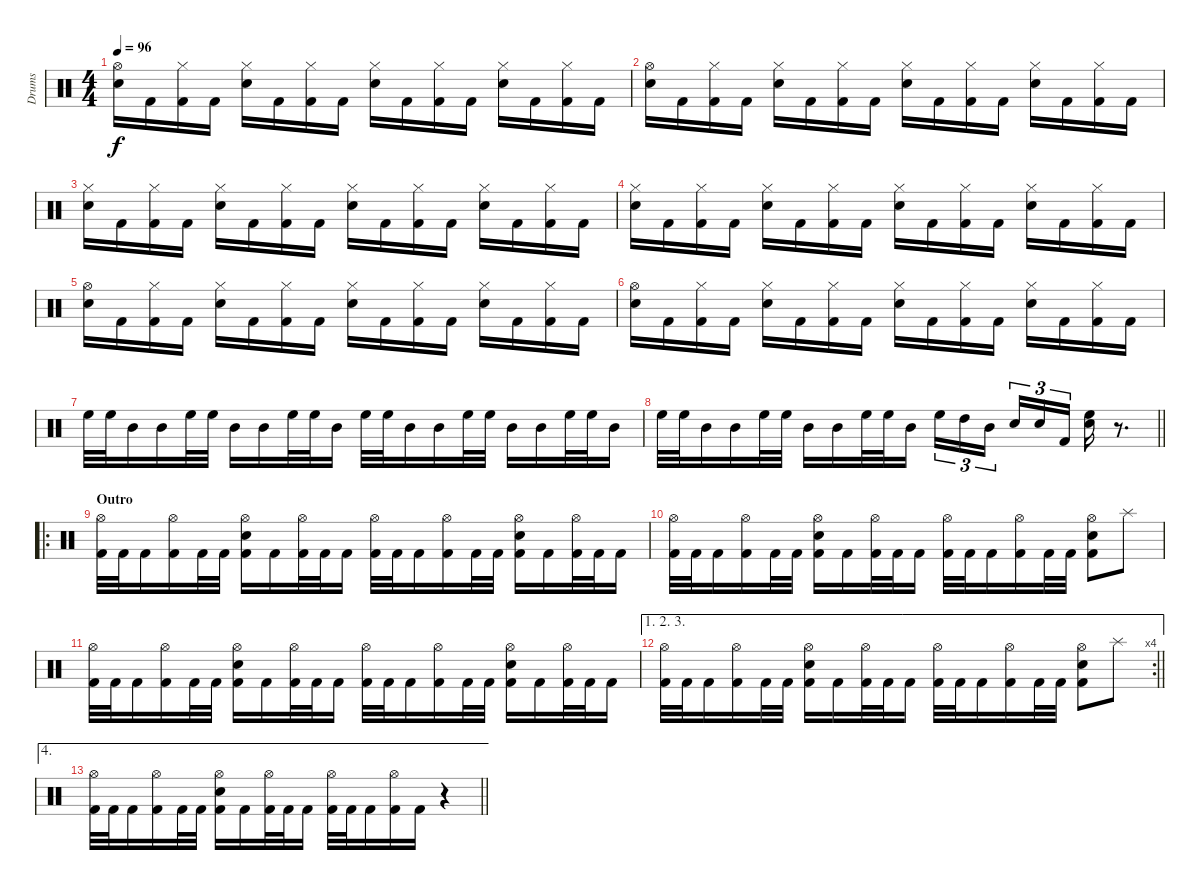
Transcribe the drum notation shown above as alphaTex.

\track ("Drums" "Drums") {instrument percussion}
\staff {score}
\articulation defaults
\ts (4 4)
\tempo 96
\clef neutral
\ks c
("Hi-Hat (open)" "Snare (hit) 2").16{dy f} "Kick (hit) 2".16 ("Hi-Hat (closed)" "Kick (hit) 2").16 "Kick (hit) 2".16 ("Hi-Hat (closed)" "Snare (hit) 2").16 "Kick (hit) 2".16 ("Hi-Hat (closed)" "Kick (hit) 2").16 "Kick (hit) 2".16 ("Hi-Hat (closed)" "Snare (hit) 2").16 "Kick (hit) 2".16 ("Hi-Hat (closed)" "Kick (hit) 2").16 "Kick (hit) 2".16 ("Hi-Hat (closed)" "Snare (hit) 2").16 "Kick (hit) 2".16 ("Hi-Hat (closed)" "Kick (hit) 2").16 "Kick (hit) 2".16 |
("Hi-Hat (open)" "Snare (hit) 2").16 "Kick (hit) 2".16 ("Hi-Hat (closed)" "Kick (hit) 2").16 "Kick (hit) 2".16 ("Hi-Hat (closed)" "Snare (hit) 2").16 "Kick (hit) 2".16 ("Hi-Hat (closed)" "Kick (hit) 2").16 "Kick (hit) 2".16 ("Hi-Hat (closed)" "Snare (hit) 2").16 "Kick (hit) 2".16 ("Hi-Hat (closed)" "Kick (hit) 2").16 "Kick (hit) 2".16 ("Hi-Hat (closed)" "Snare (hit) 2").16 "Kick (hit) 2".16 ("Hi-Hat (closed)" "Kick (hit) 2").16 "Kick (hit) 2".16 |
("Hi-Hat (closed)" "Snare (hit) 2").16 "Kick (hit) 2".16 ("Hi-Hat (closed)" "Kick (hit) 2").16 "Kick (hit) 2".16 ("Hi-Hat (closed)" "Snare (hit) 2").16 "Kick (hit) 2".16 ("Hi-Hat (closed)" "Kick (hit) 2").16 "Kick (hit) 2".16 ("Hi-Hat (closed)" "Snare (hit) 2").16 "Kick (hit) 2".16 ("Hi-Hat (closed)" "Kick (hit) 2").16 "Kick (hit) 2".16 ("Hi-Hat (closed)" "Snare (hit) 2").16 "Kick (hit) 2".16 ("Hi-Hat (closed)" "Kick (hit) 2").16 "Kick (hit) 2".16 |
("Hi-Hat (closed)" "Snare (hit) 2").16 "Kick (hit) 2".16 ("Hi-Hat (closed)" "Kick (hit) 2").16 "Kick (hit) 2".16 ("Hi-Hat (closed)" "Snare (hit) 2").16 "Kick (hit) 2".16 ("Hi-Hat (closed)" "Kick (hit) 2").16 "Kick (hit) 2".16 ("Hi-Hat (closed)" "Snare (hit) 2").16 "Kick (hit) 2".16 ("Hi-Hat (closed)" "Kick (hit) 2").16 "Kick (hit) 2".16 ("Hi-Hat (closed)" "Snare (hit) 2").16 "Kick (hit) 2".16 ("Hi-Hat (closed)" "Kick (hit) 2").16 "Kick (hit) 2".16 |
("Hi-Hat (open)" "Snare (hit) 2").16 "Kick (hit) 2".16 ("Hi-Hat (closed)" "Kick (hit) 2").16 "Kick (hit) 2".16 ("Hi-Hat (closed)" "Snare (hit) 2").16 "Kick (hit) 2".16 ("Hi-Hat (closed)" "Kick (hit) 2").16 "Kick (hit) 2".16 ("Hi-Hat (closed)" "Snare (hit) 2").16 "Kick (hit) 2".16 ("Hi-Hat (closed)" "Kick (hit) 2").16 "Kick (hit) 2".16 ("Hi-Hat (closed)" "Snare (hit) 2").16 "Kick (hit) 2".16 ("Hi-Hat (closed)" "Kick (hit) 2").16 "Kick (hit) 2".16 |
("Hi-Hat (open)" "Snare (hit) 2").16 "Kick (hit) 2".16 ("Hi-Hat (closed)" "Kick (hit) 2").16 "Kick (hit) 2".16 ("Hi-Hat (closed)" "Snare (hit) 2").16 "Kick (hit) 2".16 ("Hi-Hat (closed)" "Kick (hit) 2").16 "Kick (hit) 2".16 ("Hi-Hat (closed)" "Snare (hit) 2").16 "Kick (hit) 2".16 ("Hi-Hat (closed)" "Kick (hit) 2").16 "Kick (hit) 2".16 ("Hi-Hat (closed)" "Snare (hit) 2").16 "Kick (hit) 2".16 ("Hi-Hat (closed)" "Kick (hit) 2").16 "Kick (hit) 2".16 |
"High Floor Tom (hit)".32 "High Floor Tom (hit)".32 "Mid Tom (hit)".16 "Mid Tom (hit)".16 "High Floor Tom (hit)".32 "High Floor Tom (hit)".32 "Mid Tom (hit)".16 "Mid Tom (hit)".16 "High Floor Tom (hit)".32 "High Floor Tom (hit)".32 "Mid Tom (hit)".16 "High Floor Tom (hit)".32 "High Floor Tom (hit)".32 "Mid Tom (hit)".16 "Mid Tom (hit)".16 "High Floor Tom (hit)".32 "High Floor Tom (hit)".32 "Mid Tom (hit)".16 "Mid Tom (hit)".16 "High Floor Tom (hit)".32 "High Floor Tom (hit)".32 "Mid Tom (hit)".16 |
\barLineRight lightlight "High Floor Tom (hit)".32 "High Floor Tom (hit)".32 "Mid Tom (hit)".16 "Mid Tom (hit)".16 "High Floor Tom (hit)".32 "High Floor Tom (hit)".32 "Mid Tom (hit)".16 "Mid Tom (hit)".16 "High Floor Tom (hit)".32 "High Floor Tom (hit)".32 "Mid Tom (hit)".16 "High Floor Tom (hit)".16{tu (3 2)} "High Tom (hit)".16{tu (3 2)} "Mid Tom (hit)".16{tu (3 2)} "Electric Snare (hit)".16{tu (3 2)} "Snare (hit) 2".16{tu (3 2)} "Kick (hit) 2".16{tu (3 2)}
("High Floor Tom (hit)" "Snare (hit) 2").16 r.8{d} |
\ro
\section ("" "Outro")
("Hi-Hat (open)" "Kick (hit) 2").32 "Kick (hit) 2".32 "Kick (hit) 2".16 ("Hi-Hat (open)" "Kick (hit) 2").16 "Kick (hit) 2".32 "Kick (hit) 2".32 ("Hi-Hat (open)" "Snare (hit) 2" "Kick (hit) 2").16 "Kick (hit) 2".16 ("Hi-Hat (open)" "Kick (hit) 2").32 "Kick (hit) 2".32 "Kick (hit) 2".16 ("Hi-Hat (open)" "Kick (hit) 2").32 "Kick (hit) 2".32 "Kick (hit) 2".16 ("Hi-Hat (open)" "Kick (hit) 2").16 "Kick (hit) 2".32 "Kick (hit) 2".32 ("Hi-Hat (open)" "Snare (hit) 2" "Kick (hit) 2").16 "Kick (hit) 2".16 ("Hi-Hat (open)" "Kick (hit) 2").32 "Kick (hit) 2".32 "Kick (hit) 2".16 |
("Hi-Hat (open)" "Kick (hit) 2").32 "Kick (hit) 2".32 "Kick (hit) 2".16 ("Hi-Hat (open)" "Kick (hit) 2").16 "Kick (hit) 2".32 "Kick (hit) 2".32 ("Hi-Hat (open)" "Snare (hit) 2" "Kick (hit) 2").16 "Kick (hit) 2".16 ("Hi-Hat (open)" "Kick (hit) 2").32 "Kick (hit) 2".32 "Kick (hit) 2".16 ("Hi-Hat (open)" "Kick (hit) 2").32 "Kick (hit) 2".32 "Kick (hit) 2".16 ("Hi-Hat (open)" "Kick (hit) 2").16 "Kick (hit) 2".32 "Kick (hit) 2".32 ("Hi-Hat (open)" "Snare (hit) 2" "Kick (hit) 2").8 "Splash (hit)".8 |
("Hi-Hat (open)" "Kick (hit) 2").32 "Kick (hit) 2".32 "Kick (hit) 2".16 ("Hi-Hat (open)" "Kick (hit) 2").16 "Kick (hit) 2".32 "Kick (hit) 2".32 ("Hi-Hat (open)" "Snare (hit) 2" "Kick (hit) 2").16 "Kick (hit) 2".16 ("Hi-Hat (open)" "Kick (hit) 2").32 "Kick (hit) 2".32 "Kick (hit) 2".16 ("Hi-Hat (open)" "Kick (hit) 2").32 "Kick (hit) 2".32 "Kick (hit) 2".16 ("Hi-Hat (open)" "Kick (hit) 2").16 "Kick (hit) 2".32 "Kick (hit) 2".32 ("Hi-Hat (open)" "Snare (hit) 2" "Kick (hit) 2").16 "Kick (hit) 2".16 ("Hi-Hat (open)" "Kick (hit) 2").32 "Kick (hit) 2".32 "Kick (hit) 2".16 |
\ae (1 2 3)
\rc 4
\barLineRight lightlight
("Hi-Hat (open)" "Kick (hit) 2").32 "Kick (hit) 2".32 "Kick (hit) 2".16 ("Hi-Hat (open)" "Kick (hit) 2").16 "Kick (hit) 2".32 "Kick (hit) 2".32 ("Hi-Hat (open)" "Snare (hit) 2" "Kick (hit) 2").16 "Kick (hit) 2".16 ("Hi-Hat (open)" "Kick (hit) 2").32 "Kick (hit) 2".32 "Kick (hit) 2".16 ("Hi-Hat (open)" "Kick (hit) 2").32 "Kick (hit) 2".32 "Kick (hit) 2".16 ("Hi-Hat (open)" "Kick (hit) 2").16 "Kick (hit) 2".32 "Kick (hit) 2".32 ("Hi-Hat (open)" "Snare (hit) 2" "Kick (hit) 2").8 "Splash (hit)".8 |
\ae 4
\barLineRight lightlight
("Hi-Hat (open)" "Kick (hit) 2").32 "Kick (hit) 2".32 "Kick (hit) 2".16 ("Hi-Hat (open)" "Kick (hit) 2").16 "Kick (hit) 2".32 "Kick (hit) 2".32 ("Hi-Hat (open)" "Snare (hit) 2" "Kick (hit) 2").16 "Kick (hit) 2".16 ("Hi-Hat (open)" "Kick (hit) 2").32 "Kick (hit) 2".32 "Kick (hit) 2".16 ("Hi-Hat (open)" "Kick (hit) 2").32 "Kick (hit) 2".32 "Kick (hit) 2".16 ("Hi-Hat (open)" "Kick (hit) 2").16 "Kick (hit) 2".16 r.4
